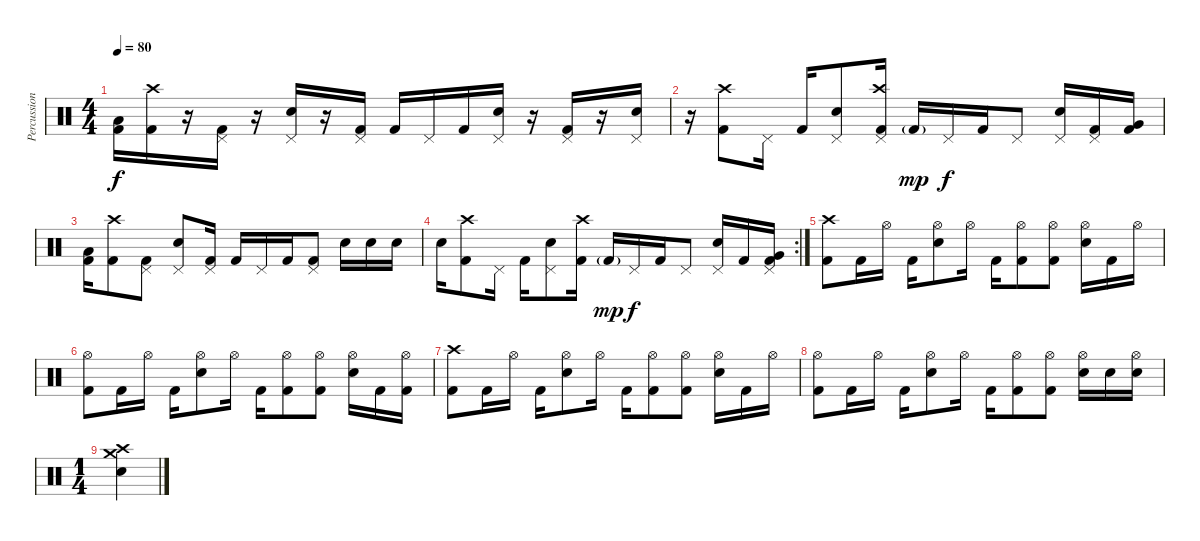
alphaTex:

\track ("Percussion" "Percussion") {instrument percussion}
\staff {score}
\articulation defaults
\ts (4 4)
\tempo 80
\clef neutral
\ks c
("Low Floor Tom (hit)" "Kick (hit) 2").16{dy f} ("Crash high (hit)" "Kick (hit) 2").16 r.16 ("Pedal Hi-Hat (hit)" "Kick (hit) 2").16 r.16 ("Pedal Hi-Hat (hit)" "Snare (hit) 2").16 r.16 ("Pedal Hi-Hat (hit)" "Kick (hit) 2").16 "Kick (hit) 2".16 "Pedal Hi-Hat (hit)".16 "Kick (hit) 2".16 ("Pedal Hi-Hat (hit)" "Snare (hit) 2").16 r.16 ("Pedal Hi-Hat (hit)" "Kick (hit) 2").16 r.16 ("Pedal Hi-Hat (hit)" "Snare (hit) 2").16 |
r.16 ("Crash high (hit)" "Kick (hit) 2").8 "Pedal Hi-Hat (hit)".16 "Kick (hit) 2".16 ("Pedal Hi-Hat (hit)" "Snare (hit) 2").8 ("Crash high (hit)" "Pedal Hi-Hat (hit)" "Kick (hit) 2").16 "Kick (hit) 2"{g}.16{dy mp} "Pedal Hi-Hat (hit)".16{dy f} "Kick (hit) 2".16 "Pedal Hi-Hat (hit)".8 ("Pedal Hi-Hat (hit)" "Snare (hit) 2").16 ("Pedal Hi-Hat (hit)" "Kick (hit) 2").16 ("Very Low Tom (hit)" "Kick (hit) 2").16 |
("Low Floor Tom (hit)" "Kick (hit) 2").16 ("Crash high (hit)" "Kick (hit) 2").8 ("Pedal Hi-Hat (hit)" "Kick (hit) 2").8 ("Pedal Hi-Hat (hit)" "Snare (hit) 2").8 ("Pedal Hi-Hat (hit)" "Kick (hit) 2").16 "Kick (hit) 2".16 "Pedal Hi-Hat (hit)".16 "Kick (hit) 2".16 ("Pedal Hi-Hat (hit)" "Kick (hit) 2").8 "Snare (hit) 2".16 "Snare (hit) 2".16 "Snare (hit) 2".16 |
\rc 2 "Snare (hit) 2".16
("Crash high (hit)" "Kick (hit) 2").8 "Pedal Hi-Hat (hit)".16 "Kick (hit) 2".16 ("Pedal Hi-Hat (hit)" "Snare (hit) 2").8 ("Crash high (hit)" "Kick (hit) 2").16 "Kick (hit) 2"{g}.16{dy mp} "Pedal Hi-Hat (hit)".16{dy f} "Kick (hit) 2".16 "Pedal Hi-Hat (hit)".8 ("Pedal Hi-Hat (hit)" "Snare (hit) 2").16 "Kick (hit) 2".16 ("Pedal Hi-Hat (hit)" "Very Low Tom (hit)" "Kick (hit) 2").16 |
("Crash high (hit)" "Kick (hit) 2").8 "Kick (hit) 2".16 "Hi-Hat (open)".16 "Kick (hit) 2".16 ("Hi-Hat (open)" "Snare (hit) 2").8 "Hi-Hat (open)".16 "Kick (hit) 2".16 ("Hi-Hat (open)" "Kick (hit) 2").8 ("Hi-Hat (open)" "Kick (hit) 2").8 ("Hi-Hat (open)" "Snare (hit) 2").16 "Kick (hit) 2".16 "Hi-Hat (open)".16 |
("Hi-Hat (open)" "Kick (hit) 2").8 "Kick (hit) 2".16 "Hi-Hat (open)".16 "Kick (hit) 2".16 ("Hi-Hat (open)" "Snare (hit) 2").8 "Hi-Hat (open)".16 "Kick (hit) 2".16 ("Hi-Hat (open)" "Kick (hit) 2").8 ("Hi-Hat (open)" "Kick (hit) 2").8 ("Hi-Hat (open)" "Snare (hit) 2").16 "Kick (hit) 2".16 ("Hi-Hat (open)" "Kick (hit) 2").16 |
("Crash high (hit)" "Kick (hit) 2").8 "Kick (hit) 2".16 "Hi-Hat (open)".16 "Kick (hit) 2".16 ("Hi-Hat (open)" "Snare (hit) 2").8 "Hi-Hat (open)".16 "Kick (hit) 2".16 ("Hi-Hat (open)" "Kick (hit) 2").8 ("Hi-Hat (open)" "Kick (hit) 2").8 ("Hi-Hat (open)" "Snare (hit) 2").16 "Kick (hit) 2".16 "Hi-Hat (open)".16 |
("Hi-Hat (open)" "Kick (hit) 2").8 "Kick (hit) 2".16 "Hi-Hat (open)".16 "Kick (hit) 2".16 ("Hi-Hat (open)" "Snare (hit) 2").8 "Hi-Hat (open)".16 "Kick (hit) 2".16 ("Hi-Hat (open)" "Kick (hit) 2").8 ("Hi-Hat (open)" "Kick (hit) 2").8 ("Hi-Hat (open)" "Snare (hit) 2").16 "Snare (hit) 2".16 ("Hi-Hat (open)" "Snare (hit) 2").16 |
\ts (1 4)
("Crash high (hit)" "Crash medium (hit)" "Snare (hit) 2").4
